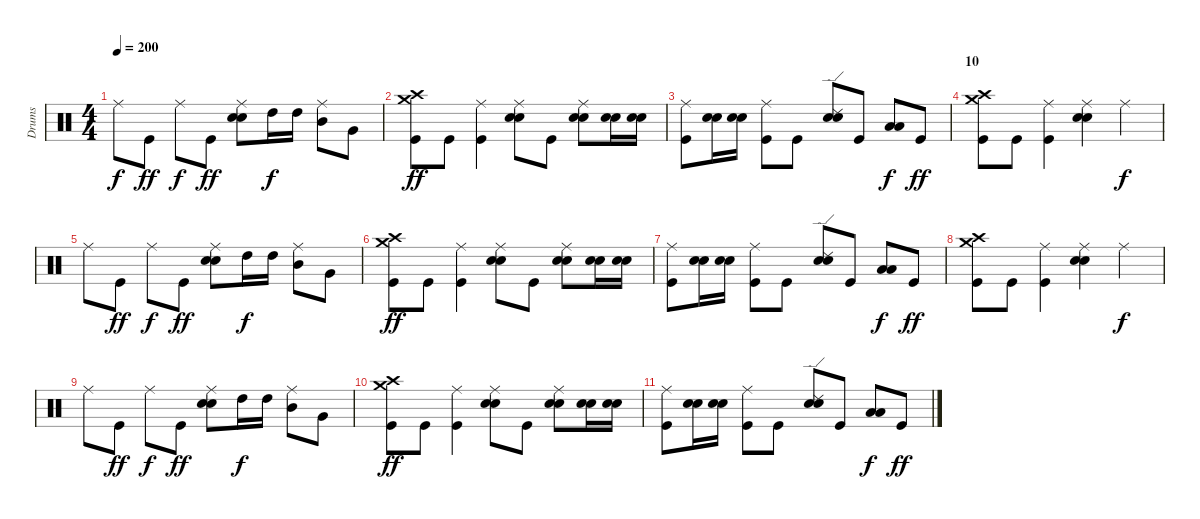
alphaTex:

\track ("Drums" "Drums") {instrument percussion}
\staff {score}
\articulation defaults
\ts (4 4)
\tempo 200
\clef neutral
\ks c "Ride (middle)".8{dy f} "Kick (hit)".8{dy ff} "Ride (middle)".8{dy f} "Kick (hit)".8{dy ff}
("Electric Snare (hit)" "Electric Snare (hit)" "Ride (middle)").8 "High Tom (hit)".16{dy f} "High Tom (hit)".16 ("Mid Tom (hit)" "Ride (middle)").8 "Very Low Tom (hit)".8 |
("Kick (hit)" "Crash high (hit)" "Crash medium (hit)").8{dy ff} "Kick (hit)".8 ("Kick (hit)" "Ride (middle)").4 ("Electric Snare (hit)" "Electric Snare (hit)" "Ride (middle)").8 "Kick (hit)".8 ("Electric Snare (hit)" "Electric Snare (hit)" "Ride (middle)").8 ("Electric Snare (hit)" "Electric Snare (hit)").16 ("Electric Snare (hit)" "Electric Snare (hit)").16 |
("Kick (hit)" "Ride (middle)").8 ("Electric Snare (hit)" "Electric Snare (hit)").16 ("Electric Snare (hit)" "Electric Snare (hit)").16 ("Kick (hit)" "Ride (middle)").8 "Kick (hit)".8 ("Electric Snare (hit)" "Electric Snare (hit)" "Ride (edge) 2").8 "Kick (hit)".8 ("Low Floor Tom (hit)" "Low Floor Tom (hit)").8{dy f} "Kick (hit)".8{dy ff} |
\section ("" "10")
("Kick (hit)" "Crash high (hit)" "Crash medium (hit)").8{volume 8} "Kick (hit)".8 ("Kick (hit)" "Ride (middle)").4 ("Electric Snare (hit)" "Electric Snare (hit)" "Ride (middle)").4 "Ride (middle)".4{dy f} |
"Ride (middle)".8 "Kick (hit)".8{dy ff} "Ride (middle)".8{dy f} "Kick (hit)".8{dy ff} ("Electric Snare (hit)" "Electric Snare (hit)" "Ride (middle)").8 "High Tom (hit)".16{dy f} "High Tom (hit)".16 ("Mid Tom (hit)" "Ride (middle)").8 "Very Low Tom (hit)".8 |
("Kick (hit)" "Crash high (hit)" "Crash medium (hit)").8{dy ff} "Kick (hit)".8 ("Kick (hit)" "Ride (middle)").4 ("Electric Snare (hit)" "Electric Snare (hit)" "Ride (middle)").8 "Kick (hit)".8 ("Electric Snare (hit)" "Electric Snare (hit)" "Ride (middle)").8 ("Electric Snare (hit)" "Electric Snare (hit)").16 ("Electric Snare (hit)" "Electric Snare (hit)").16 |
("Kick (hit)" "Ride (middle)").8 ("Electric Snare (hit)" "Electric Snare (hit)").16 ("Electric Snare (hit)" "Electric Snare (hit)").16 ("Kick (hit)" "Ride (middle)").8 "Kick (hit)".8 ("Electric Snare (hit)" "Electric Snare (hit)" "Ride (edge) 2").8 "Kick (hit)".8 ("Low Floor Tom (hit)" "Low Floor Tom (hit)").8{dy f} "Kick (hit)".8{dy ff} |
("Kick (hit)" "Crash high (hit)" "Crash medium (hit)").8{volume 2} "Kick (hit)".8 ("Kick (hit)" "Ride (middle)").4 ("Electric Snare (hit)" "Electric Snare (hit)" "Ride (middle)").4 "Ride (middle)".4{dy f} |
"Ride (middle)".8 "Kick (hit)".8{dy ff} "Ride (middle)".8{dy f} "Kick (hit)".8{dy ff} ("Electric Snare (hit)" "Electric Snare (hit)" "Ride (middle)").8 "High Tom (hit)".16{dy f} "High Tom (hit)".16 ("Mid Tom (hit)" "Ride (middle)").8 "Very Low Tom (hit)".8 |
("Kick (hit)" "Crash high (hit)" "Crash medium (hit)").8{dy ff} "Kick (hit)".8 ("Kick (hit)" "Ride (middle)").4 ("Electric Snare (hit)" "Electric Snare (hit)" "Ride (middle)").8 "Kick (hit)".8 ("Electric Snare (hit)" "Electric Snare (hit)" "Ride (middle)").8 ("Electric Snare (hit)" "Electric Snare (hit)").16 ("Electric Snare (hit)" "Electric Snare (hit)").16 |
("Kick (hit)" "Ride (middle)").8 ("Electric Snare (hit)" "Electric Snare (hit)").16 ("Electric Snare (hit)" "Electric Snare (hit)").16 ("Kick (hit)" "Ride (middle)").8 "Kick (hit)".8 ("Electric Snare (hit)" "Electric Snare (hit)" "Ride (edge) 2").8 "Kick (hit)".8 ("Low Floor Tom (hit)" "Low Floor Tom (hit)").8{dy f} "Kick (hit)".8{dy ff}
